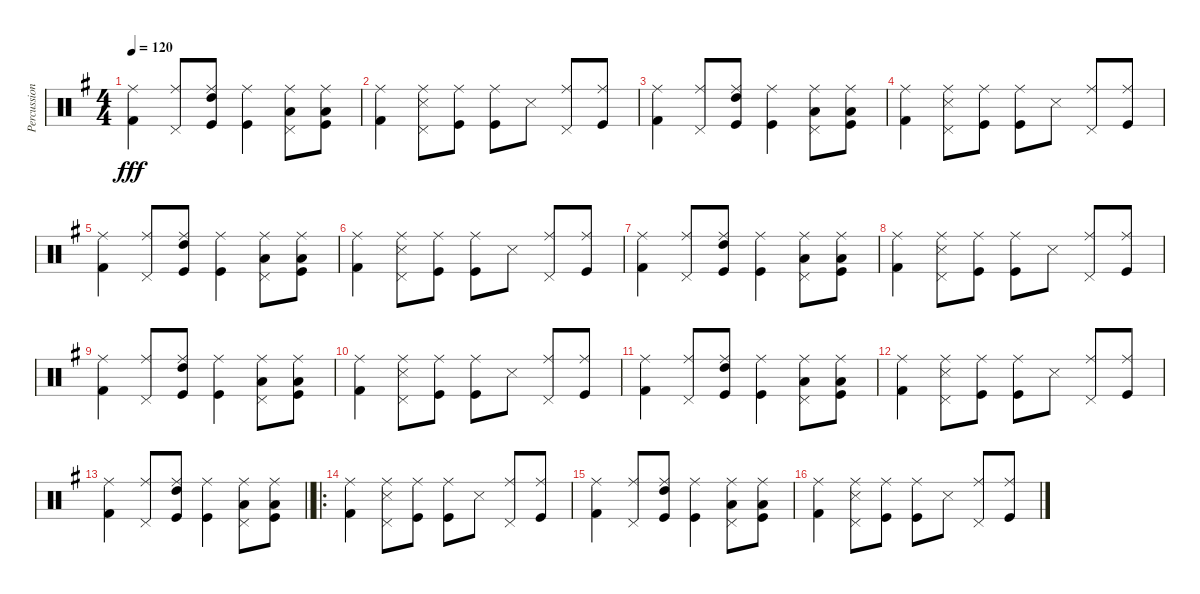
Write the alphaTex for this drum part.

\track ("Percussions" "Percussion") {instrument percussion}
\staff {score}
\articulation defaults
\ts (4 4)
\tempo 120
\clef neutral
\ks g
("Ride (middle)" "Kick (hit) 2").4{dy fff} ("Ride (middle)" "Pedal Hi-Hat (hit)").8 ("Ride (middle)" "Kick (hit)" "High Tom (hit)").8 ("Ride (middle)" "Kick (hit)").4 ("Ride (middle)" "Low Tom (hit)" "Pedal Hi-Hat (hit)").8 ("Ride (middle)" "Kick (hit)" "Low Tom (hit)").8 |
("Ride (middle)" "Kick (hit) 2").4 ("Ride (middle)" "Pedal Hi-Hat (hit)" "Snare (side stick) 3").8 ("Ride (middle)" "Kick (hit)").8 ("Ride (middle)" "Kick (hit)").8 "Snare (side stick) 3".8 ("Ride (middle)" "Pedal Hi-Hat (hit)").8 ("Ride (middle)" "Kick (hit)").8 |
("Ride (middle)" "Kick (hit) 2").4 ("Ride (middle)" "Pedal Hi-Hat (hit)").8 ("Ride (middle)" "Kick (hit)" "High Tom (hit)").8 ("Ride (middle)" "Kick (hit)").4 ("Ride (middle)" "Low Tom (hit)" "Pedal Hi-Hat (hit)").8 ("Ride (middle)" "Kick (hit)" "Low Tom (hit)").8 |
("Ride (middle)" "Kick (hit) 2").4 ("Ride (middle)" "Pedal Hi-Hat (hit)" "Snare (side stick) 3").8 ("Ride (middle)" "Kick (hit)").8 ("Ride (middle)" "Kick (hit)").8 "Snare (side stick) 3".8 ("Ride (middle)" "Pedal Hi-Hat (hit)").8 ("Ride (middle)" "Kick (hit)").8 |
("Ride (middle)" "Kick (hit) 2").4 ("Ride (middle)" "Pedal Hi-Hat (hit)").8 ("Ride (middle)" "Kick (hit)" "High Tom (hit)").8 ("Ride (middle)" "Kick (hit)").4 ("Ride (middle)" "Low Tom (hit)" "Pedal Hi-Hat (hit)").8 ("Ride (middle)" "Kick (hit)" "Low Tom (hit)").8 |
("Ride (middle)" "Kick (hit) 2").4 ("Ride (middle)" "Pedal Hi-Hat (hit)" "Snare (side stick) 3").8 ("Ride (middle)" "Kick (hit)").8 ("Ride (middle)" "Kick (hit)").8 "Snare (side stick) 3".8 ("Ride (middle)" "Pedal Hi-Hat (hit)").8 ("Ride (middle)" "Kick (hit)").8 |
("Ride (middle)" "Kick (hit) 2").4 ("Ride (middle)" "Pedal Hi-Hat (hit)").8 ("Ride (middle)" "Kick (hit)" "High Tom (hit)").8 ("Ride (middle)" "Kick (hit)").4 ("Ride (middle)" "Low Tom (hit)" "Pedal Hi-Hat (hit)").8 ("Ride (middle)" "Kick (hit)" "Low Tom (hit)").8 |
("Ride (middle)" "Kick (hit) 2").4 ("Ride (middle)" "Pedal Hi-Hat (hit)" "Snare (side stick) 3").8 ("Ride (middle)" "Kick (hit)").8 ("Ride (middle)" "Kick (hit)").8 "Snare (side stick) 3".8 ("Ride (middle)" "Pedal Hi-Hat (hit)").8 ("Ride (middle)" "Kick (hit)").8 |
("Ride (middle)" "Kick (hit) 2").4 ("Ride (middle)" "Pedal Hi-Hat (hit)").8 ("Ride (middle)" "Kick (hit)" "High Tom (hit)").8 ("Ride (middle)" "Kick (hit)").4 ("Ride (middle)" "Low Tom (hit)" "Pedal Hi-Hat (hit)").8 ("Ride (middle)" "Kick (hit)" "Low Tom (hit)").8 |
("Ride (middle)" "Kick (hit) 2").4 ("Ride (middle)" "Pedal Hi-Hat (hit)" "Snare (side stick) 3").8 ("Ride (middle)" "Kick (hit)").8 ("Ride (middle)" "Kick (hit)").8 "Snare (side stick) 3".8 ("Ride (middle)" "Pedal Hi-Hat (hit)").8 ("Ride (middle)" "Kick (hit)").8 |
("Ride (middle)" "Kick (hit) 2").4 ("Ride (middle)" "Pedal Hi-Hat (hit)").8 ("Ride (middle)" "Kick (hit)" "High Tom (hit)").8 ("Ride (middle)" "Kick (hit)").4 ("Ride (middle)" "Low Tom (hit)" "Pedal Hi-Hat (hit)").8 ("Ride (middle)" "Kick (hit)" "Low Tom (hit)").8 |
("Ride (middle)" "Kick (hit) 2").4 ("Ride (middle)" "Pedal Hi-Hat (hit)" "Snare (side stick) 3").8 ("Ride (middle)" "Kick (hit)").8 ("Ride (middle)" "Kick (hit)").8 "Snare (side stick) 3".8 ("Ride (middle)" "Pedal Hi-Hat (hit)").8 ("Ride (middle)" "Kick (hit)").8 |
\barLineRight lightlight
("Ride (middle)" "Kick (hit) 2").4 ("Ride (middle)" "Pedal Hi-Hat (hit)").8 ("Ride (middle)" "Kick (hit)" "High Tom (hit)").8 ("Ride (middle)" "Kick (hit)").4 ("Ride (middle)" "Low Tom (hit)" "Pedal Hi-Hat (hit)").8 ("Ride (middle)" "Kick (hit)" "Low Tom (hit)").8 |
\ro
("Ride (middle)" "Kick (hit) 2").4 ("Ride (middle)" "Pedal Hi-Hat (hit)" "Snare (side stick) 3").8 ("Ride (middle)" "Kick (hit)").8 ("Ride (middle)" "Kick (hit)").8 "Snare (side stick) 3".8 ("Ride (middle)" "Pedal Hi-Hat (hit)").8 ("Ride (middle)" "Kick (hit)").8 |
("Ride (middle)" "Kick (hit) 2").4 ("Ride (middle)" "Pedal Hi-Hat (hit)").8 ("Ride (middle)" "Kick (hit)" "High Tom (hit)").8 ("Ride (middle)" "Kick (hit)").4 ("Ride (middle)" "Low Tom (hit)" "Pedal Hi-Hat (hit)").8 ("Ride (middle)" "Kick (hit)" "Low Tom (hit)").8 |
("Ride (middle)" "Kick (hit) 2").4 ("Ride (middle)" "Pedal Hi-Hat (hit)" "Snare (side stick) 3").8 ("Ride (middle)" "Kick (hit)").8 ("Ride (middle)" "Kick (hit)").8 "Snare (side stick) 3".8 ("Ride (middle)" "Pedal Hi-Hat (hit)").8 ("Ride (middle)" "Kick (hit)").8
